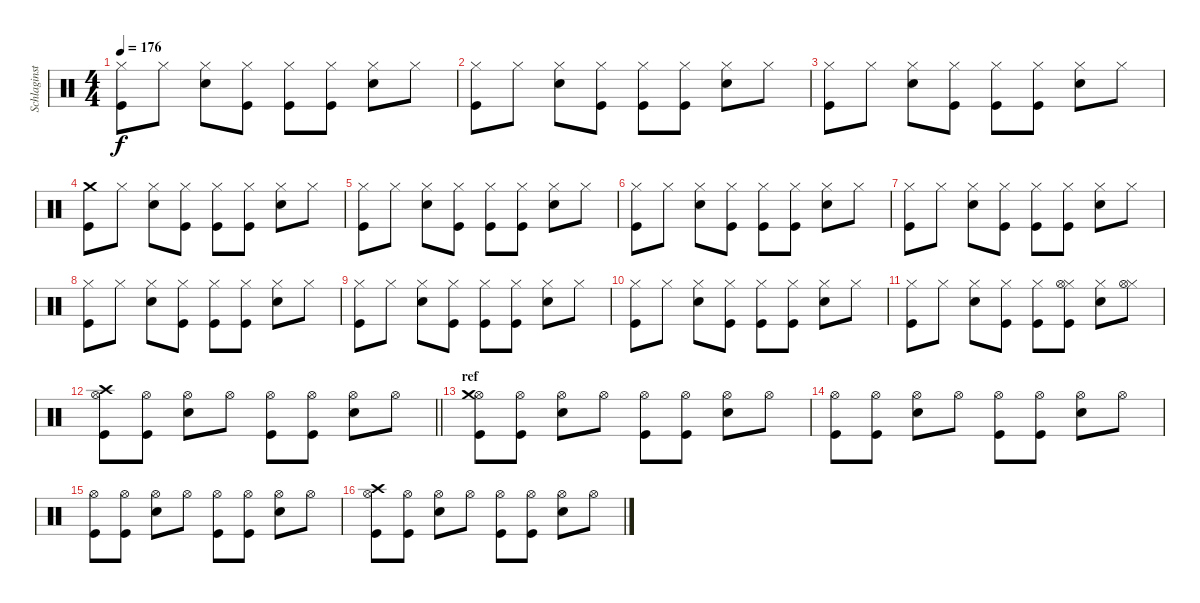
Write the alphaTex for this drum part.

\track ("Schlaginstrumente - Auswahl" "Schlaginst") {instrument percussion}
\staff {score}
\articulation defaults
\ts (4 4)
\tempo 176
\clef neutral
\ks c
("Hi-Hat (closed)" "Kick (hit)").8{dy f} "Hi-Hat (closed)".8 ("Hi-Hat (closed)" "Snare (hit) 2").8 ("Hi-Hat (closed)" "Kick (hit)").8 ("Hi-Hat (closed)" "Kick (hit)").8 ("Hi-Hat (closed)" "Kick (hit)").8 ("Hi-Hat (closed)" "Snare (hit) 2").8 "Hi-Hat (closed)".8 |
("Hi-Hat (closed)" "Kick (hit)").8 "Hi-Hat (closed)".8 ("Hi-Hat (closed)" "Snare (hit) 2").8 ("Hi-Hat (closed)" "Kick (hit)").8 ("Hi-Hat (closed)" "Kick (hit)").8 ("Hi-Hat (closed)" "Kick (hit)").8 ("Hi-Hat (closed)" "Snare (hit) 2").8 "Hi-Hat (closed)".8 |
("Hi-Hat (closed)" "Kick (hit)").8 "Hi-Hat (closed)".8 ("Hi-Hat (closed)" "Snare (hit) 2").8 ("Hi-Hat (closed)" "Kick (hit)").8 ("Hi-Hat (closed)" "Kick (hit)").8 ("Hi-Hat (closed)" "Kick (hit)").8 ("Hi-Hat (closed)" "Snare (hit) 2").8 "Hi-Hat (closed)".8 |
("Crash medium (hit)" "Kick (hit)").8 "Hi-Hat (closed)".8 ("Hi-Hat (closed)" "Snare (hit) 2").8 ("Hi-Hat (closed)" "Kick (hit)").8 ("Hi-Hat (closed)" "Kick (hit)").8 ("Hi-Hat (closed)" "Kick (hit)").8 ("Hi-Hat (closed)" "Snare (hit) 2").8 "Hi-Hat (closed)".8 |
("Hi-Hat (closed)" "Kick (hit)").8 "Hi-Hat (closed)".8 ("Hi-Hat (closed)" "Snare (hit) 2").8 ("Hi-Hat (closed)" "Kick (hit)").8 ("Hi-Hat (closed)" "Kick (hit)").8 ("Hi-Hat (closed)" "Kick (hit)").8 ("Hi-Hat (closed)" "Snare (hit) 2").8 "Hi-Hat (closed)".8 |
("Hi-Hat (closed)" "Kick (hit)").8 "Hi-Hat (closed)".8 ("Hi-Hat (closed)" "Snare (hit) 2").8 ("Hi-Hat (closed)" "Kick (hit)").8 ("Hi-Hat (closed)" "Kick (hit)").8 ("Hi-Hat (closed)" "Kick (hit)").8 ("Hi-Hat (closed)" "Snare (hit) 2").8 "Hi-Hat (closed)".8 |
("Hi-Hat (closed)" "Kick (hit)").8 "Hi-Hat (closed)".8 ("Hi-Hat (closed)" "Snare (hit) 2").8 ("Hi-Hat (closed)" "Kick (hit)").8 ("Hi-Hat (closed)" "Kick (hit)").8 ("Hi-Hat (closed)" "Kick (hit)").8 ("Hi-Hat (closed)" "Snare (hit) 2").8 "Hi-Hat (closed)".8 |
("Hi-Hat (closed)" "Kick (hit)").8 "Hi-Hat (closed)".8 ("Hi-Hat (closed)" "Snare (hit) 2").8 ("Hi-Hat (closed)" "Kick (hit)").8 ("Hi-Hat (closed)" "Kick (hit)").8 ("Hi-Hat (closed)" "Kick (hit)").8 ("Hi-Hat (closed)" "Snare (hit) 2").8 "Hi-Hat (closed)".8 |
("Hi-Hat (closed)" "Kick (hit)").8 "Hi-Hat (closed)".8 ("Hi-Hat (closed)" "Snare (hit) 2").8 ("Hi-Hat (closed)" "Kick (hit)").8 ("Hi-Hat (closed)" "Kick (hit)").8 ("Hi-Hat (closed)" "Kick (hit)").8 ("Hi-Hat (closed)" "Snare (hit) 2").8 "Hi-Hat (closed)".8 |
("Hi-Hat (closed)" "Kick (hit)").8 "Hi-Hat (closed)".8 ("Hi-Hat (closed)" "Snare (hit) 2").8 ("Hi-Hat (closed)" "Kick (hit)").8 ("Hi-Hat (closed)" "Kick (hit)").8 ("Hi-Hat (closed)" "Kick (hit)").8 ("Hi-Hat (closed)" "Snare (hit) 2").8 "Hi-Hat (closed)".8 |
("Hi-Hat (closed)" "Kick (hit)").8 "Hi-Hat (closed)".8 ("Hi-Hat (closed)" "Snare (hit) 2").8 ("Hi-Hat (closed)" "Kick (hit)").8 ("Hi-Hat (closed)" "Kick (hit)").8 ("Hi-Hat (closed)" "Kick (hit)" "Hi-Hat (open)").8 ("Hi-Hat (closed)" "Snare (hit) 2").8 ("Hi-Hat (closed)" "Hi-Hat (open)").8 |
\barLineRight lightlight
("Kick (hit)" "Hi-Hat (open)" "Crash high (hit)").8 ("Kick (hit)" "Hi-Hat (open)").8 ("Hi-Hat (open)" "Snare (hit) 2").8 "Hi-Hat (open)".8 ("Hi-Hat (open)" "Kick (hit)").8 ("Hi-Hat (open)" "Kick (hit)").8 ("Hi-Hat (open)" "Snare (hit) 2").8 "Hi-Hat (open)".8 |
\section ("" "ref")
("Kick (hit)" "Hi-Hat (open)" "Crash medium (hit)").8 ("Kick (hit)" "Hi-Hat (open)").8 ("Hi-Hat (open)" "Snare (hit) 2").8 "Hi-Hat (open)".8 ("Hi-Hat (open)" "Kick (hit)").8 ("Hi-Hat (open)" "Kick (hit)").8 ("Hi-Hat (open)" "Snare (hit) 2").8 "Hi-Hat (open)".8 |
("Hi-Hat (open)" "Kick (hit)").8 ("Hi-Hat (open)" "Kick (hit)").8 ("Hi-Hat (open)" "Snare (hit) 2").8 "Hi-Hat (open)".8 ("Hi-Hat (open)" "Kick (hit)").8 ("Hi-Hat (open)" "Kick (hit)").8 ("Hi-Hat (open)" "Snare (hit) 2").8 "Hi-Hat (open)".8 |
("Hi-Hat (open)" "Kick (hit)").8 ("Hi-Hat (open)" "Kick (hit)").8 ("Hi-Hat (open)" "Snare (hit) 2").8 "Hi-Hat (open)".8 ("Hi-Hat (open)" "Kick (hit)").8 ("Hi-Hat (open)" "Kick (hit)").8 ("Hi-Hat (open)" "Snare (hit) 2").8 "Hi-Hat (open)".8 |
("Hi-Hat (open)" "Kick (hit)" "Crash high (hit)").8 ("Hi-Hat (open)" "Kick (hit)").8 ("Hi-Hat (open)" "Snare (hit) 2").8 "Hi-Hat (open)".8 ("Hi-Hat (open)" "Kick (hit)").8 ("Hi-Hat (open)" "Kick (hit)").8 ("Hi-Hat (open)" "Snare (hit) 2").8 "Hi-Hat (open)".8
